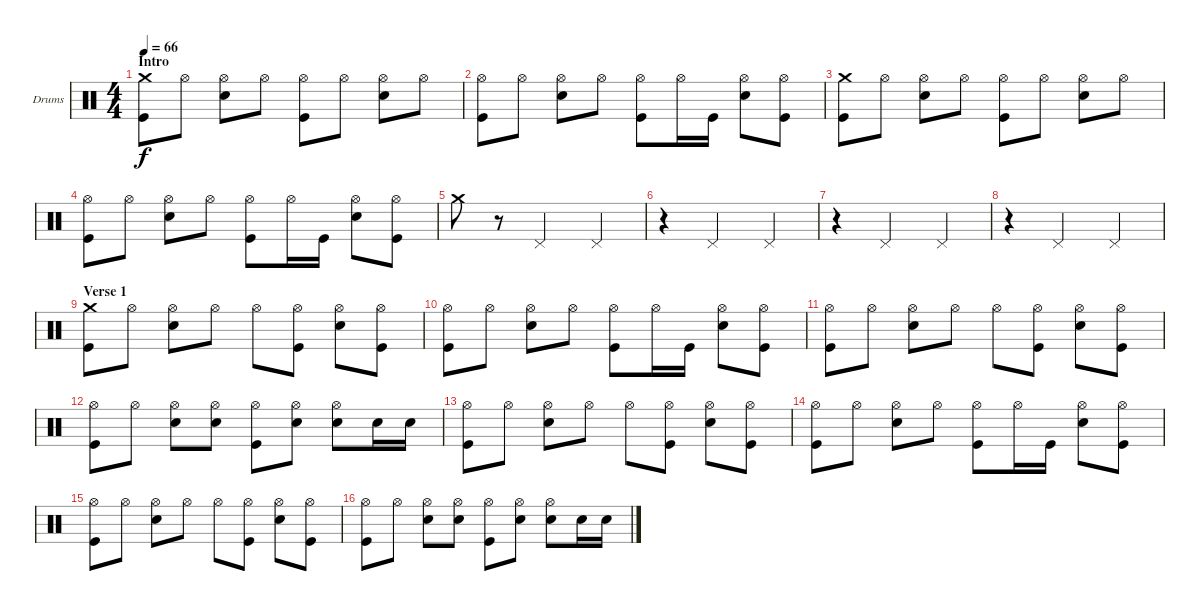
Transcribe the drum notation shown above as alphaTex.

\bracketExtendMode groupsimilarinstruments
\firstSystemTrackNameOrientation horizontal
\otherSystemsTrackNameOrientation horizontal
\track ("Drumkit" "Drums") {instrument percussion}
\staff {score}
\articulation defaults
\ts (4 4)
\section ("" "Intro")
\tempo 66
\clef neutral
\ks c
("Crash medium (hit)" "Kick (hit)").8{dy f} "Hi-Hat (open)".8 ("Hi-Hat (open)" "Snare (hit) 2").8 "Hi-Hat (open)".8 ("Hi-Hat (open)" "Kick (hit)").8 "Hi-Hat (open)".8 ("Hi-Hat (open)" "Snare (hit) 2").8 "Hi-Hat (open)".8 |
("Hi-Hat (open)" "Kick (hit)").8 "Hi-Hat (open)".8 ("Hi-Hat (open)" "Snare (hit) 2").8 "Hi-Hat (open)".8 ("Hi-Hat (open)" "Kick (hit)").8 "Hi-Hat (open)".16 "Kick (hit)".16 ("Hi-Hat (open)" "Snare (hit) 2").8 ("Hi-Hat (open)" "Kick (hit)").8 |
("Crash medium (hit)" "Kick (hit)").8 "Hi-Hat (open)".8 ("Hi-Hat (open)" "Snare (hit) 2").8 "Hi-Hat (open)".8 ("Hi-Hat (open)" "Kick (hit)").8 "Hi-Hat (open)".8 ("Hi-Hat (open)" "Snare (hit) 2").8 "Hi-Hat (open)".8 |
("Hi-Hat (open)" "Kick (hit)").8 "Hi-Hat (open)".8 ("Hi-Hat (open)" "Snare (hit) 2").8 "Hi-Hat (open)".8 ("Hi-Hat (open)" "Kick (hit)").8 "Hi-Hat (open)".16 "Kick (hit)".16 ("Hi-Hat (open)" "Snare (hit) 2").8 ("Hi-Hat (open)" "Kick (hit)").8 |
"Crash medium (hit)".8 r.8 "Pedal Hi-Hat (hit)".2 "Pedal Hi-Hat (hit)".4 |
r.4 "Pedal Hi-Hat (hit)".2 "Pedal Hi-Hat (hit)".4 |
r.4 "Pedal Hi-Hat (hit)".2 "Pedal Hi-Hat (hit)".4 |
r.4 "Pedal Hi-Hat (hit)".2 "Pedal Hi-Hat (hit)".4 |
\section ("" "Verse 1")
("Crash medium (hit)" "Kick (hit)").8 "Hi-Hat (open)".8 ("Hi-Hat (open)" "Snare (hit) 2").8 "Hi-Hat (open)".8 "Hi-Hat (open)".8 ("Hi-Hat (open)" "Kick (hit)").8 ("Hi-Hat (open)" "Snare (hit) 2").8 ("Hi-Hat (open)" "Kick (hit)").8 |
("Hi-Hat (open)" "Kick (hit)").8 "Hi-Hat (open)".8 ("Hi-Hat (open)" "Snare (hit) 2").8 "Hi-Hat (open)".8 ("Hi-Hat (open)" "Kick (hit)").8 "Hi-Hat (open)".16 "Kick (hit)".16 ("Hi-Hat (open)" "Snare (hit) 2").8 ("Hi-Hat (open)" "Kick (hit)").8 |
("Hi-Hat (open)" "Kick (hit)").8 "Hi-Hat (open)".8 ("Hi-Hat (open)" "Snare (hit) 2").8 "Hi-Hat (open)".8 "Hi-Hat (open)".8 ("Hi-Hat (open)" "Kick (hit)").8 ("Hi-Hat (open)" "Snare (hit) 2").8 ("Hi-Hat (open)" "Kick (hit)").8 |
("Hi-Hat (open)" "Kick (hit)").8 "Hi-Hat (open)".8 ("Hi-Hat (open)" "Snare (hit) 2").8 ("Hi-Hat (open)" "Snare (hit) 2").8 ("Hi-Hat (open)" "Kick (hit)").8 ("Hi-Hat (open)" "Snare (hit) 2").8 ("Hi-Hat (open)" "Snare (hit) 2").8 "Snare (hit) 2".16 "Snare (hit) 2".16 |
("Hi-Hat (open)" "Kick (hit)").8 "Hi-Hat (open)".8 ("Hi-Hat (open)" "Snare (hit) 2").8 "Hi-Hat (open)".8 "Hi-Hat (open)".8 ("Hi-Hat (open)" "Kick (hit)").8 ("Hi-Hat (open)" "Snare (hit) 2").8 ("Hi-Hat (open)" "Kick (hit)").8 |
("Hi-Hat (open)" "Kick (hit)").8 "Hi-Hat (open)".8 ("Hi-Hat (open)" "Snare (hit) 2").8 "Hi-Hat (open)".8 ("Hi-Hat (open)" "Kick (hit)").8 "Hi-Hat (open)".16 "Kick (hit)".16 ("Hi-Hat (open)" "Snare (hit) 2").8 ("Hi-Hat (open)" "Kick (hit)").8 |
("Hi-Hat (open)" "Kick (hit)").8 "Hi-Hat (open)".8 ("Hi-Hat (open)" "Snare (hit) 2").8 "Hi-Hat (open)".8 "Hi-Hat (open)".8 ("Hi-Hat (open)" "Kick (hit)").8 ("Hi-Hat (open)" "Snare (hit) 2").8 ("Hi-Hat (open)" "Kick (hit)").8 |
("Hi-Hat (open)" "Kick (hit)").8 "Hi-Hat (open)".8 ("Hi-Hat (open)" "Snare (hit) 2").8 ("Hi-Hat (open)" "Snare (hit) 2").8 ("Hi-Hat (open)" "Kick (hit)").8 ("Hi-Hat (open)" "Snare (hit) 2").8 ("Hi-Hat (open)" "Snare (hit) 2").8 "Snare (hit) 2".16 "Snare (hit) 2".16
